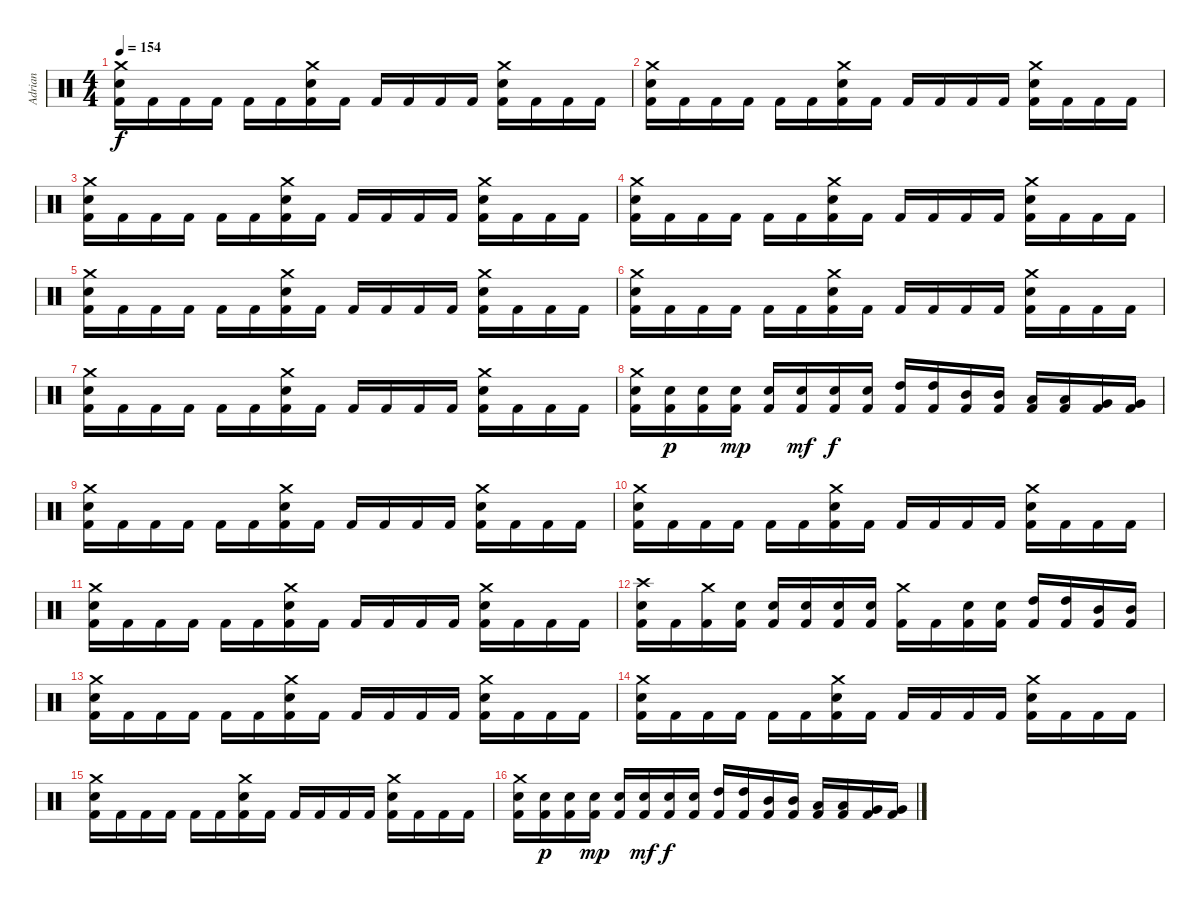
\track ("Adrian" "Adrian") {instrument percussion}
\staff {score}
\articulation defaults
\ts (4 4)
\tempo 154
\clef neutral
\ks c
("Crash medium (hit)" "Electric Snare (hit)" "Kick (hit) 2").16{dy f} "Kick (hit) 2".16 "Kick (hit) 2".16 "Kick (hit) 2".16 "Kick (hit) 2".16 "Kick (hit) 2".16 ("Crash medium (hit)" "Electric Snare (hit)" "Kick (hit) 2").16 "Kick (hit) 2".16 "Kick (hit) 2".16 "Kick (hit) 2".16 "Kick (hit) 2".16 "Kick (hit) 2".16 ("Crash medium (hit)" "Electric Snare (hit)" "Kick (hit) 2").16 "Kick (hit) 2".16 "Kick (hit) 2".16 "Kick (hit) 2".16 |
("Crash medium (hit)" "Electric Snare (hit)" "Kick (hit) 2").16 "Kick (hit) 2".16 "Kick (hit) 2".16 "Kick (hit) 2".16 "Kick (hit) 2".16 "Kick (hit) 2".16 ("Crash medium (hit)" "Electric Snare (hit)" "Kick (hit) 2").16 "Kick (hit) 2".16 "Kick (hit) 2".16 "Kick (hit) 2".16 "Kick (hit) 2".16 "Kick (hit) 2".16 ("Crash medium (hit)" "Electric Snare (hit)" "Kick (hit) 2").16 "Kick (hit) 2".16 "Kick (hit) 2".16 "Kick (hit) 2".16 |
("Crash medium (hit)" "Electric Snare (hit)" "Kick (hit) 2").16 "Kick (hit) 2".16 "Kick (hit) 2".16 "Kick (hit) 2".16 "Kick (hit) 2".16 "Kick (hit) 2".16 ("Crash medium (hit)" "Electric Snare (hit)" "Kick (hit) 2").16 "Kick (hit) 2".16 "Kick (hit) 2".16 "Kick (hit) 2".16 "Kick (hit) 2".16 "Kick (hit) 2".16 ("Crash medium (hit)" "Electric Snare (hit)" "Kick (hit) 2").16 "Kick (hit) 2".16 "Kick (hit) 2".16 "Kick (hit) 2".16 |
("Crash medium (hit)" "Electric Snare (hit)" "Kick (hit) 2").16 "Kick (hit) 2".16 "Kick (hit) 2".16 "Kick (hit) 2".16 "Kick (hit) 2".16 "Kick (hit) 2".16 ("Crash medium (hit)" "Electric Snare (hit)" "Kick (hit) 2").16 "Kick (hit) 2".16 "Kick (hit) 2".16 "Kick (hit) 2".16 "Kick (hit) 2".16 "Kick (hit) 2".16 ("Crash medium (hit)" "Electric Snare (hit)" "Kick (hit) 2").16 "Kick (hit) 2".16 "Kick (hit) 2".16 "Kick (hit) 2".16 |
("Crash medium (hit)" "Electric Snare (hit)" "Kick (hit) 2").16 "Kick (hit) 2".16 "Kick (hit) 2".16 "Kick (hit) 2".16 "Kick (hit) 2".16 "Kick (hit) 2".16 ("Crash medium (hit)" "Electric Snare (hit)" "Kick (hit) 2").16 "Kick (hit) 2".16 "Kick (hit) 2".16 "Kick (hit) 2".16 "Kick (hit) 2".16 "Kick (hit) 2".16 ("Crash medium (hit)" "Electric Snare (hit)" "Kick (hit) 2").16 "Kick (hit) 2".16 "Kick (hit) 2".16 "Kick (hit) 2".16 |
("Crash medium (hit)" "Electric Snare (hit)" "Kick (hit) 2").16 "Kick (hit) 2".16 "Kick (hit) 2".16 "Kick (hit) 2".16 "Kick (hit) 2".16 "Kick (hit) 2".16 ("Crash medium (hit)" "Electric Snare (hit)" "Kick (hit) 2").16 "Kick (hit) 2".16 "Kick (hit) 2".16 "Kick (hit) 2".16 "Kick (hit) 2".16 "Kick (hit) 2".16 ("Crash medium (hit)" "Electric Snare (hit)" "Kick (hit) 2").16 "Kick (hit) 2".16 "Kick (hit) 2".16 "Kick (hit) 2".16 |
("Crash medium (hit)" "Electric Snare (hit)" "Kick (hit) 2").16 "Kick (hit) 2".16 "Kick (hit) 2".16 "Kick (hit) 2".16 "Kick (hit) 2".16 "Kick (hit) 2".16 ("Crash medium (hit)" "Electric Snare (hit)" "Kick (hit) 2").16 "Kick (hit) 2".16 "Kick (hit) 2".16 "Kick (hit) 2".16 "Kick (hit) 2".16 "Kick (hit) 2".16 ("Crash medium (hit)" "Electric Snare (hit)" "Kick (hit) 2").16 "Kick (hit) 2".16 "Kick (hit) 2".16 "Kick (hit) 2".16 |
("Crash medium (hit)" "Electric Snare (hit)" "Kick (hit) 2").16 ("Electric Snare (hit)" "Kick (hit) 2").16{dy p} ("Electric Snare (hit)" "Kick (hit) 2").16 ("Electric Snare (hit)" "Kick (hit) 2").16{dy mp} ("Electric Snare (hit)" "Kick (hit) 2").16 ("Electric Snare (hit)" "Kick (hit) 2").16{dy mf} ("Electric Snare (hit)" "Kick (hit) 2").16{dy f} ("Electric Snare (hit)" "Kick (hit) 2").16 ("High Tom (hit)" "Kick (hit) 2").16 ("High Tom (hit)" "Kick (hit) 2").16 ("Mid Tom (hit)" "Kick (hit) 2").16 ("Mid Tom (hit)" "Kick (hit) 2").16 ("Low Tom (hit)" "Kick (hit) 2").16 ("Low Tom (hit)" "Kick (hit) 2").16 ("Very Low Tom (hit)" "Kick (hit) 2").16 ("Very Low Tom (hit)" "Kick (hit) 2").16 |
("Crash medium (hit)" "Electric Snare (hit)" "Kick (hit) 2").16 "Kick (hit) 2".16 "Kick (hit) 2".16 "Kick (hit) 2".16 "Kick (hit) 2".16 "Kick (hit) 2".16 ("Crash medium (hit)" "Electric Snare (hit)" "Kick (hit) 2").16 "Kick (hit) 2".16 "Kick (hit) 2".16 "Kick (hit) 2".16 "Kick (hit) 2".16 "Kick (hit) 2".16 ("Crash medium (hit)" "Electric Snare (hit)" "Kick (hit) 2").16 "Kick (hit) 2".16 "Kick (hit) 2".16 "Kick (hit) 2".16 |
("Crash medium (hit)" "Electric Snare (hit)" "Kick (hit) 2").16 "Kick (hit) 2".16 "Kick (hit) 2".16 "Kick (hit) 2".16 "Kick (hit) 2".16 "Kick (hit) 2".16 ("Crash medium (hit)" "Electric Snare (hit)" "Kick (hit) 2").16 "Kick (hit) 2".16 "Kick (hit) 2".16 "Kick (hit) 2".16 "Kick (hit) 2".16 "Kick (hit) 2".16 ("Crash medium (hit)" "Electric Snare (hit)" "Kick (hit) 2").16 "Kick (hit) 2".16 "Kick (hit) 2".16 "Kick (hit) 2".16 |
("Crash medium (hit)" "Electric Snare (hit)" "Kick (hit) 2").16 "Kick (hit) 2".16 "Kick (hit) 2".16 "Kick (hit) 2".16 "Kick (hit) 2".16 "Kick (hit) 2".16 ("Crash medium (hit)" "Electric Snare (hit)" "Kick (hit) 2").16 "Kick (hit) 2".16 "Kick (hit) 2".16 "Kick (hit) 2".16 "Kick (hit) 2".16 "Kick (hit) 2".16 ("Crash medium (hit)" "Electric Snare (hit)" "Kick (hit) 2").16 "Kick (hit) 2".16 "Kick (hit) 2".16 "Kick (hit) 2".16 |
("Crash high (hit)" "Electric Snare (hit)" "Kick (hit) 2").16 "Kick (hit) 2".16 ("Crash medium (hit)" "Kick (hit) 2").16 ("Electric Snare (hit)" "Kick (hit) 2").16 ("Electric Snare (hit)" "Kick (hit) 2").16 ("Electric Snare (hit)" "Kick (hit) 2").16 ("Electric Snare (hit)" "Kick (hit) 2").16 ("Electric Snare (hit)" "Kick (hit) 2").16 ("Crash medium (hit)" "Kick (hit) 2").16 "Kick (hit) 2".16 ("Electric Snare (hit)" "Kick (hit) 2").16 ("Electric Snare (hit)" "Kick (hit) 2").16 ("High Tom (hit)" "Kick (hit) 2").16 ("High Tom (hit)" "Kick (hit) 2").16 ("Mid Tom (hit)" "Kick (hit) 2").16 ("Mid Tom (hit)" "Kick (hit) 2").16 |
("Crash medium (hit)" "Electric Snare (hit)" "Kick (hit) 2").16 "Kick (hit) 2".16 "Kick (hit) 2".16 "Kick (hit) 2".16 "Kick (hit) 2".16 "Kick (hit) 2".16 ("Crash medium (hit)" "Electric Snare (hit)" "Kick (hit) 2").16 "Kick (hit) 2".16 "Kick (hit) 2".16 "Kick (hit) 2".16 "Kick (hit) 2".16 "Kick (hit) 2".16 ("Crash medium (hit)" "Electric Snare (hit)" "Kick (hit) 2").16 "Kick (hit) 2".16 "Kick (hit) 2".16 "Kick (hit) 2".16 |
("Crash medium (hit)" "Electric Snare (hit)" "Kick (hit) 2").16 "Kick (hit) 2".16 "Kick (hit) 2".16 "Kick (hit) 2".16 "Kick (hit) 2".16 "Kick (hit) 2".16 ("Crash medium (hit)" "Electric Snare (hit)" "Kick (hit) 2").16 "Kick (hit) 2".16 "Kick (hit) 2".16 "Kick (hit) 2".16 "Kick (hit) 2".16 "Kick (hit) 2".16 ("Crash medium (hit)" "Electric Snare (hit)" "Kick (hit) 2").16 "Kick (hit) 2".16 "Kick (hit) 2".16 "Kick (hit) 2".16 |
("Crash medium (hit)" "Electric Snare (hit)" "Kick (hit) 2").16 "Kick (hit) 2".16 "Kick (hit) 2".16 "Kick (hit) 2".16 "Kick (hit) 2".16 "Kick (hit) 2".16 ("Crash medium (hit)" "Electric Snare (hit)" "Kick (hit) 2").16 "Kick (hit) 2".16 "Kick (hit) 2".16 "Kick (hit) 2".16 "Kick (hit) 2".16 "Kick (hit) 2".16 ("Crash medium (hit)" "Electric Snare (hit)" "Kick (hit) 2").16 "Kick (hit) 2".16 "Kick (hit) 2".16 "Kick (hit) 2".16 |
("Crash medium (hit)" "Electric Snare (hit)" "Kick (hit) 2").16 ("Electric Snare (hit)" "Kick (hit) 2").16{dy p} ("Electric Snare (hit)" "Kick (hit) 2").16 ("Electric Snare (hit)" "Kick (hit) 2").16{dy mp} ("Electric Snare (hit)" "Kick (hit) 2").16 ("Electric Snare (hit)" "Kick (hit) 2").16{dy mf} ("Electric Snare (hit)" "Kick (hit) 2").16{dy f} ("Electric Snare (hit)" "Kick (hit) 2").16 ("High Tom (hit)" "Kick (hit) 2").16 ("High Tom (hit)" "Kick (hit) 2").16 ("Mid Tom (hit)" "Kick (hit) 2").16 ("Mid Tom (hit)" "Kick (hit) 2").16 ("Low Tom (hit)" "Kick (hit) 2").16 ("Low Tom (hit)" "Kick (hit) 2").16 ("Very Low Tom (hit)" "Kick (hit) 2").16 ("Very Low Tom (hit)" "Kick (hit) 2").16
